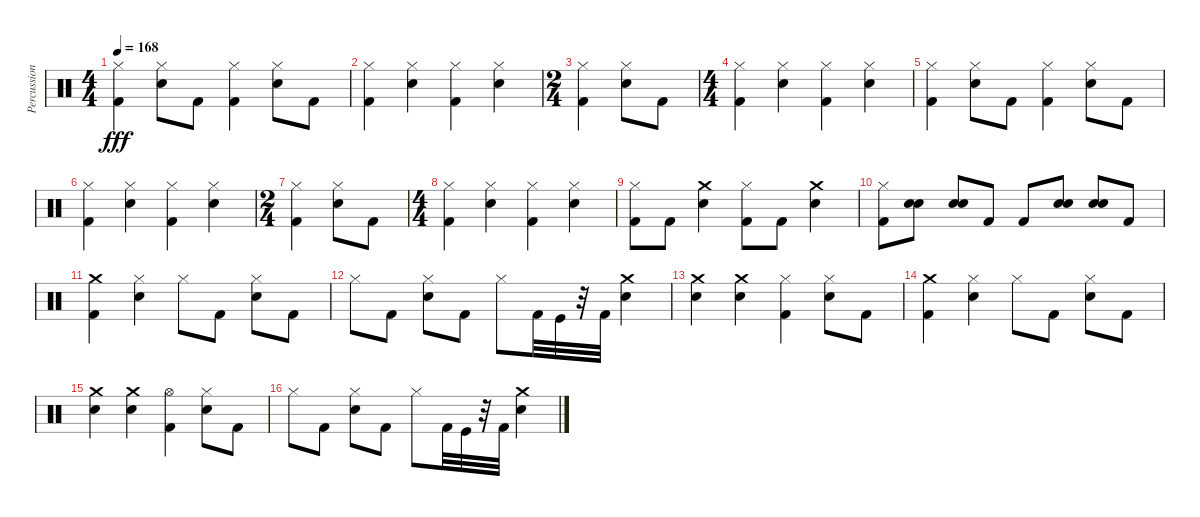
\track ("Percussion" "Percussion") {instrument percussion}
\staff {score}
\articulation defaults
\ts (4 4)
\tempo 168
\clef neutral
\ks c
("Hi-Hat (closed)" "Kick (hit) 2").4{dy fff} ("Snare (hit) 2" "Hi-Hat (closed)").8 "Kick (hit) 2".8 ("Kick (hit) 2" "Hi-Hat (closed)").4 ("Hi-Hat (closed)" "Snare (hit) 2").8 "Kick (hit) 2".8 |
("Hi-Hat (closed)" "Kick (hit) 2").4 ("Hi-Hat (closed)" "Snare (hit) 2").4 ("Hi-Hat (closed)" "Kick (hit) 2").4 ("Snare (hit) 2" "Hi-Hat (closed)").4 |
\ts (2 4)
("Hi-Hat (closed)" "Kick (hit) 2").4 ("Snare (hit) 2" "Hi-Hat (closed)").8 "Kick (hit) 2".8 |
\ts (4 4)
("Kick (hit) 2" "Hi-Hat (closed)").4 ("Snare (hit) 2" "Hi-Hat (closed)").4 ("Kick (hit) 2" "Hi-Hat (closed)").4 ("Snare (hit) 2" "Hi-Hat (closed)").4 |
("Hi-Hat (closed)" "Kick (hit) 2").4 ("Snare (hit) 2" "Hi-Hat (closed)").8 "Kick (hit) 2".8 ("Kick (hit) 2" "Hi-Hat (closed)").4 ("Hi-Hat (closed)" "Snare (hit) 2").8 "Kick (hit) 2".8 |
("Hi-Hat (closed)" "Kick (hit) 2").4 ("Hi-Hat (closed)" "Snare (hit) 2").4 ("Hi-Hat (closed)" "Kick (hit) 2").4 ("Snare (hit) 2" "Hi-Hat (closed)").4 |
\ts (2 4)
("Hi-Hat (closed)" "Kick (hit) 2").4 ("Snare (hit) 2" "Hi-Hat (closed)").8 "Kick (hit) 2".8 |
\ts (4 4)
("Kick (hit) 2" "Hi-Hat (closed)").4 ("Snare (hit) 2" "Hi-Hat (closed)").4 ("Kick (hit) 2" "Hi-Hat (closed)").4 ("Snare (hit) 2" "Hi-Hat (closed)").4 |
("Kick (hit) 2" "Hi-Hat (closed)").8 "Kick (hit) 2".8 ("Crash medium (hit)" "Snare (hit) 2").4 ("Kick (hit) 2" "Hi-Hat (closed)").8 "Kick (hit) 2".8 ("Crash medium (hit)" "Snare (hit) 2").4 |
("Kick (hit) 2" "Hi-Hat (closed)").8 ("Snare (hit) 2" "Snare (hit) 2").8 ("Snare (hit) 2" "Snare (hit) 2").8 "Kick (hit) 2".8 "Kick (hit) 2".8 ("Snare (hit) 2" "Snare (hit) 2").8 ("Snare (hit) 2" "Snare (hit) 2").8 "Kick (hit) 2".8 |
("Kick (hit) 2" "Crash medium (hit)").4 ("Hi-Hat (closed)" "Snare (hit) 2").4 "Hi-Hat (closed)".8 "Kick (hit) 2".8 ("Snare (hit) 2" "Hi-Hat (closed)").8 "Kick (hit) 2".8 |
"Hi-Hat (closed)".8 "Kick (hit) 2".8 ("Snare (hit) 2" "Hi-Hat (closed)").8 "Kick (hit) 2".8 "Hi-Hat (closed)".8 "Kick (hit) 2".32 "Kick (hit)".32 r.32 "Kick (hit) 2".32 ("Crash medium (hit)" "Snare (hit) 2").4 |
("Crash medium (hit)" "Snare (hit) 2").4 ("Crash medium (hit)" "Snare (hit) 2").4 ("Hi-Hat (closed)" "Kick (hit) 2").4 ("Snare (hit) 2" "Hi-Hat (closed)").8 "Kick (hit) 2".8 |
("Kick (hit) 2" "Crash medium (hit)").4 ("Hi-Hat (closed)" "Snare (hit) 2").4 "Hi-Hat (closed)".8 "Kick (hit) 2".8 ("Snare (hit) 2" "Hi-Hat (closed)").8 "Kick (hit) 2".8 |
("Crash medium (hit)" "Snare (hit) 2").4 ("Crash medium (hit)" "Snare (hit) 2").4 ("Hi-Hat (open)" "Kick (hit) 2").4 ("Snare (hit) 2" "Hi-Hat (closed)").8 "Kick (hit) 2".8 |
"Hi-Hat (closed)".8 "Kick (hit) 2".8 ("Snare (hit) 2" "Hi-Hat (closed)").8 "Kick (hit) 2".8 "Hi-Hat (closed)".8 "Kick (hit) 2".32 "Kick (hit)".32 r.32 "Kick (hit) 2".32 ("Crash medium (hit)" "Snare (hit) 2").4
